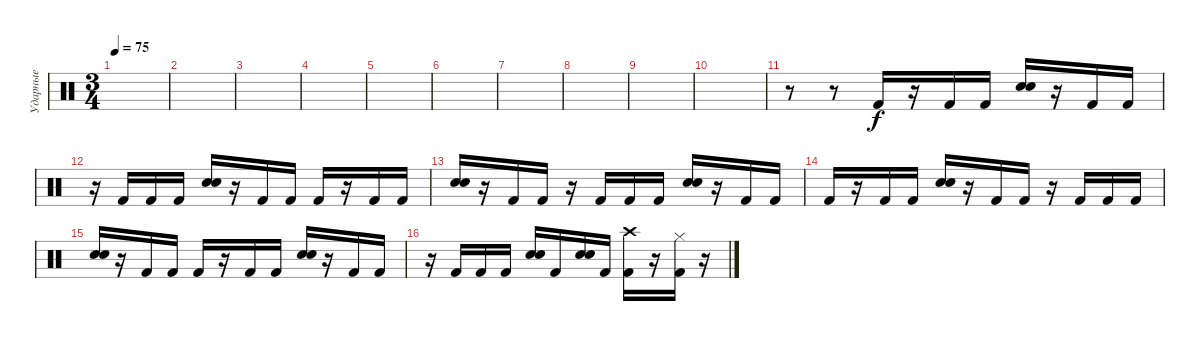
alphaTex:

\track ("Ударные" "Ударные") {instrument percussion}
\staff {score}
\articulation defaults
\ts (3 4)
\tempo 75
\clef neutral
\ks c
|
|
|
|
|
|
|
|
|
|
r.8 r.8 "Kick (hit) 2".16 r.16 "Kick (hit) 2".16 "Kick (hit) 2".16 ("Electric Snare (hit)" "Snare (hit) 2").16 r.16 "Kick (hit) 2".16 "Kick (hit) 2".16 |
r.16 "Kick (hit) 2".16 "Kick (hit) 2".16 "Kick (hit) 2".16 ("Electric Snare (hit)" "Snare (hit) 2").16 r.16 "Kick (hit) 2".16 "Kick (hit) 2".16 "Kick (hit) 2".16 r.16 "Kick (hit) 2".16 "Kick (hit) 2".16 |
("Electric Snare (hit)" "Snare (hit) 2").16 r.16 "Kick (hit) 2".16 "Kick (hit) 2".16 r.16 "Kick (hit) 2".16 "Kick (hit) 2".16 "Kick (hit) 2".16 ("Electric Snare (hit)" "Snare (hit) 2").16 r.16 "Kick (hit) 2".16 "Kick (hit) 2".16 |
"Kick (hit) 2".16 r.16 "Kick (hit) 2".16 "Kick (hit) 2".16 ("Electric Snare (hit)" "Snare (hit) 2").16 r.16 "Kick (hit) 2".16 "Kick (hit) 2".16 r.16 "Kick (hit) 2".16 "Kick (hit) 2".16 "Kick (hit) 2".16 |
("Electric Snare (hit)" "Snare (hit) 2").16 r.16 "Kick (hit) 2".16 "Kick (hit) 2".16 "Kick (hit) 2".16 r.16 "Kick (hit) 2".16 "Kick (hit) 2".16 ("Electric Snare (hit)" "Snare (hit) 2").16 r.16 "Kick (hit) 2".16 "Kick (hit) 2".16 |
r.16 "Kick (hit) 2".16 "Kick (hit) 2".16 "Kick (hit) 2".16 ("Electric Snare (hit)" "Snare (hit) 2").16 "Kick (hit) 2".16 ("Electric Snare (hit)" "Snare (hit) 2").16 "Kick (hit) 2".16 ("Crash high (hit)" "Kick (hit) 2").16{volume 16} r.16 ("Hi-Hat (closed)" "Kick (hit) 2").16 r.16
